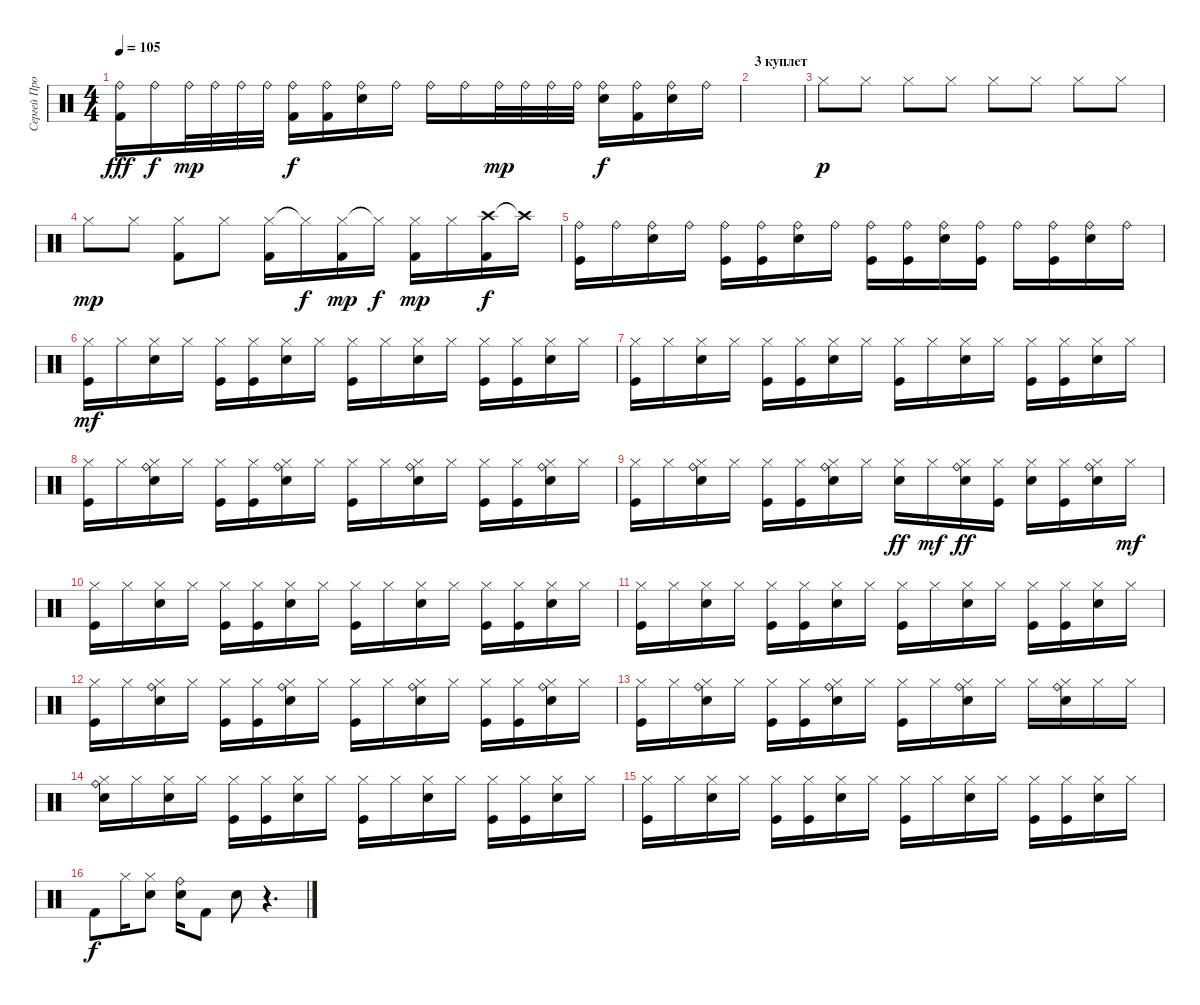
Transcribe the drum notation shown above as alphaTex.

\track ("Сергей Прокофьев" "Сергей Про") {instrument percussion}
\staff {score}
\articulation defaults
\ts (4 4)
\tempo 105
\clef neutral
\ks c
("Ride (bell)" "Kick (hit) 2").16{dy fff} "Ride (bell)".16{dy f} "Ride (bell)".32{dy mp} "Ride (bell)".32 "Ride (bell)".32 "Ride (bell)".32 ("Ride (bell)" "Kick (hit) 2").16{dy f} ("Ride (bell)" "Kick (hit) 2").16 ("Ride (bell)" "Snare (hit) 2").16 "Ride (bell)".16 "Ride (bell)".16 "Ride (bell)".16 "Ride (bell)".32{dy mp} "Ride (bell)".32 "Ride (bell)".32 "Ride (bell)".32 ("Ride (bell)" "Snare (hit) 2").16{dy f} ("Ride (bell)" "Kick (hit) 2").16 ("Ride (bell)" "Snare (hit) 2").16 "Ride (bell)".16 |
\section ("" "3 куплет")
|
"Hi-Hat (closed)".8{dy p} "Hi-Hat (closed)".8 "Hi-Hat (closed)".8 "Hi-Hat (closed)".8 "Hi-Hat (closed)".8 "Hi-Hat (closed)".8 "Hi-Hat (closed)".8 "Hi-Hat (closed)".8 |
"Hi-Hat (closed)".8{dy mp} "Hi-Hat (closed)".8 ("Hi-Hat (closed)" "Kick (hit) 2").8 "Hi-Hat (closed)".8 ("Hi-Hat (closed)" "Kick (hit) 2").16 "Hi-Hat (closed)"{t}.16{dy f} ("Hi-Hat (closed)" "Kick (hit) 2").16{dy mp} "Hi-Hat (closed)"{t}.16{dy f} ("Hi-Hat (closed)" "Kick (hit) 2").16{dy mp} "Hi-Hat (closed)".16 ("Crash high (hit)" "Kick (hit) 2").16{dy f} "Crash high (hit)"{t}.16 |
("Ride (bell)" "Kick (hit)").16 "Ride (bell)".16 ("Ride (bell)" "Snare (hit) 2").16 "Ride (bell)".16 ("Ride (bell)" "Kick (hit)").16 ("Ride (bell)" "Kick (hit)").16 ("Ride (bell)" "Snare (hit) 2").16 "Ride (bell)".16 ("Ride (bell)" "Kick (hit)").16 ("Ride (bell)" "Kick (hit)").16 ("Ride (bell)" "Snare (hit) 2").16 ("Ride (bell)" "Kick (hit)").16 "Ride (bell)".16 ("Ride (bell)" "Kick (hit)").16 ("Ride (bell)" "Snare (hit) 2").16 "Ride (bell)".16 |
("Hi-Hat (closed)" "Kick (hit)").16{dy mf} "Hi-Hat (closed)".16 ("Hi-Hat (closed)" "Snare (hit) 2").16 "Hi-Hat (closed)".16 ("Hi-Hat (closed)" "Kick (hit)").16 ("Hi-Hat (closed)" "Kick (hit)").16 ("Hi-Hat (closed)" "Snare (hit) 2").16 "Hi-Hat (closed)".16 ("Hi-Hat (closed)" "Kick (hit)").16 "Hi-Hat (closed)".16 ("Hi-Hat (closed)" "Snare (hit) 2").16 "Hi-Hat (closed)".16 ("Hi-Hat (closed)" "Kick (hit)").16 ("Hi-Hat (closed)" "Kick (hit)").16 ("Hi-Hat (closed)" "Snare (hit) 2").16 "Hi-Hat (closed)".16 |
("Hi-Hat (closed)" "Kick (hit)").16 "Hi-Hat (closed)".16 ("Hi-Hat (closed)" "Snare (hit) 2").16 "Hi-Hat (closed)".16 ("Hi-Hat (closed)" "Kick (hit)").16 ("Hi-Hat (closed)" "Kick (hit)").16 ("Hi-Hat (closed)" "Snare (hit) 2").16 "Hi-Hat (closed)".16 ("Hi-Hat (closed)" "Kick (hit)").16 "Hi-Hat (closed)".16 ("Hi-Hat (closed)" "Snare (hit) 2").16 "Hi-Hat (closed)".16 ("Hi-Hat (closed)" "Kick (hit)").16 ("Hi-Hat (closed)" "Kick (hit)").16 ("Hi-Hat (closed)" "Snare (hit) 2").16 "Hi-Hat (closed)".16 |
("Hi-Hat (closed)" "Kick (hit)").16 "Hi-Hat (closed)".16 ("Hi-Hat (closed)" "Snare (hit) 2" "Ride (bell)").16 "Hi-Hat (closed)".16 ("Hi-Hat (closed)" "Kick (hit)").16 ("Hi-Hat (closed)" "Kick (hit)").16 ("Hi-Hat (closed)" "Snare (hit) 2" "Ride (bell)").16 "Hi-Hat (closed)".16 ("Hi-Hat (closed)" "Kick (hit)").16 "Hi-Hat (closed)".16 ("Hi-Hat (closed)" "Snare (hit) 2" "Ride (bell)").16 "Hi-Hat (closed)".16 ("Hi-Hat (closed)" "Kick (hit)").16 ("Hi-Hat (closed)" "Kick (hit)").16 ("Hi-Hat (closed)" "Snare (hit) 2" "Ride (bell)").16 "Hi-Hat (closed)".16 |
("Hi-Hat (closed)" "Kick (hit)").16 "Hi-Hat (closed)".16 ("Hi-Hat (closed)" "Snare (hit) 2" "Ride (bell)").16 "Hi-Hat (closed)".16 ("Hi-Hat (closed)" "Kick (hit)").16 ("Hi-Hat (closed)" "Kick (hit)").16 ("Hi-Hat (closed)" "Snare (hit) 2" "Ride (bell)").16 "Hi-Hat (closed)".16 ("Hi-Hat (closed)" "Snare (hit) 2").16{dy ff} "Hi-Hat (closed)".16{dy mf} ("Hi-Hat (closed)" "Snare (hit) 2" "Ride (bell)").16{dy ff} ("Hi-Hat (closed)" "Kick (hit)").16 ("Hi-Hat (closed)" "Snare (hit) 2").16 ("Hi-Hat (closed)" "Kick (hit)").16 ("Hi-Hat (closed)" "Snare (hit) 2" "Ride (bell)").16 "Hi-Hat (closed)".16{dy mf} |
("Hi-Hat (closed)" "Kick (hit)").16 "Hi-Hat (closed)".16 ("Hi-Hat (closed)" "Snare (hit) 2").16 "Hi-Hat (closed)".16 ("Hi-Hat (closed)" "Kick (hit)").16 ("Hi-Hat (closed)" "Kick (hit)").16 ("Hi-Hat (closed)" "Snare (hit) 2").16 "Hi-Hat (closed)".16 ("Hi-Hat (closed)" "Kick (hit)").16 "Hi-Hat (closed)".16 ("Hi-Hat (closed)" "Snare (hit) 2").16 "Hi-Hat (closed)".16 ("Hi-Hat (closed)" "Kick (hit)").16 ("Hi-Hat (closed)" "Kick (hit)").16 ("Hi-Hat (closed)" "Snare (hit) 2").16 "Hi-Hat (closed)".16 |
("Hi-Hat (closed)" "Kick (hit)").16 "Hi-Hat (closed)".16 ("Hi-Hat (closed)" "Snare (hit) 2").16 "Hi-Hat (closed)".16 ("Hi-Hat (closed)" "Kick (hit)").16 ("Hi-Hat (closed)" "Kick (hit)").16 ("Hi-Hat (closed)" "Snare (hit) 2").16 "Hi-Hat (closed)".16 ("Hi-Hat (closed)" "Kick (hit)").16 "Hi-Hat (closed)".16 ("Hi-Hat (closed)" "Snare (hit) 2").16 "Hi-Hat (closed)".16 ("Hi-Hat (closed)" "Kick (hit)").16 ("Hi-Hat (closed)" "Kick (hit)").16 ("Hi-Hat (closed)" "Snare (hit) 2").16 "Hi-Hat (closed)".16 |
("Hi-Hat (closed)" "Kick (hit)").16 "Hi-Hat (closed)".16 ("Hi-Hat (closed)" "Snare (hit) 2" "Ride (bell)").16 "Hi-Hat (closed)".16 ("Hi-Hat (closed)" "Kick (hit)").16 ("Hi-Hat (closed)" "Kick (hit)").16 ("Hi-Hat (closed)" "Snare (hit) 2" "Ride (bell)").16 "Hi-Hat (closed)".16 ("Hi-Hat (closed)" "Kick (hit)").16 "Hi-Hat (closed)".16 ("Hi-Hat (closed)" "Snare (hit) 2" "Ride (bell)").16 "Hi-Hat (closed)".16 ("Hi-Hat (closed)" "Kick (hit)").16 ("Hi-Hat (closed)" "Kick (hit)").16 ("Hi-Hat (closed)" "Snare (hit) 2" "Ride (bell)").16 "Hi-Hat (closed)".16 |
("Hi-Hat (closed)" "Kick (hit)").16 "Hi-Hat (closed)".16 ("Hi-Hat (closed)" "Snare (hit) 2" "Ride (bell)").16 "Hi-Hat (closed)".16 ("Hi-Hat (closed)" "Kick (hit)").16 ("Hi-Hat (closed)" "Kick (hit)").16 ("Hi-Hat (closed)" "Snare (hit) 2" "Ride (bell)").16 "Hi-Hat (closed)".16 ("Hi-Hat (closed)" "Kick (hit)").16 "Hi-Hat (closed)".16 ("Hi-Hat (closed)" "Snare (hit) 2" "Ride (bell)").16 "Hi-Hat (closed)".16 "Hi-Hat (closed)".16 ("Hi-Hat (closed)" "Snare (hit) 2" "Ride (bell)").16 "Hi-Hat (closed)".16 "Hi-Hat (closed)".16 |
("Hi-Hat (closed)" "Snare (hit) 2" "Ride (bell)").16 "Hi-Hat (closed)".16 ("Hi-Hat (closed)" "Snare (hit) 2").16 "Hi-Hat (closed)".16 ("Hi-Hat (closed)" "Kick (hit)").16 ("Hi-Hat (closed)" "Kick (hit)").16 ("Hi-Hat (closed)" "Snare (hit) 2").16 "Hi-Hat (closed)".16 ("Hi-Hat (closed)" "Kick (hit)").16 "Hi-Hat (closed)".16 ("Hi-Hat (closed)" "Snare (hit) 2").16 "Hi-Hat (closed)".16 ("Hi-Hat (closed)" "Kick (hit)").16 ("Hi-Hat (closed)" "Kick (hit)").16 ("Hi-Hat (closed)" "Snare (hit) 2").16 "Hi-Hat (closed)".16 |
("Hi-Hat (closed)" "Kick (hit)").16 "Hi-Hat (closed)".16 ("Hi-Hat (closed)" "Snare (hit) 2").16 "Hi-Hat (closed)".16 ("Hi-Hat (closed)" "Kick (hit)").16 ("Hi-Hat (closed)" "Kick (hit)").16 ("Hi-Hat (closed)" "Snare (hit) 2").16 "Hi-Hat (closed)".16 ("Hi-Hat (closed)" "Kick (hit)").16 "Hi-Hat (closed)".16 ("Hi-Hat (closed)" "Snare (hit) 2").16 "Hi-Hat (closed)".16 ("Hi-Hat (closed)" "Kick (hit)").16 ("Hi-Hat (closed)" "Kick (hit)").16 ("Hi-Hat (closed)" "Snare (hit) 2").16 "Hi-Hat (closed)".16 |
"Kick (hit) 2".8{dy f} "Hi-Hat (closed)".16 ("Hi-Hat (closed)" "Snare (hit) 2").8 ("Ride (bell)" "Snare (hit) 2").16 "Kick (hit) 2".8 "Snare (hit) 2".8 r.4{d}
